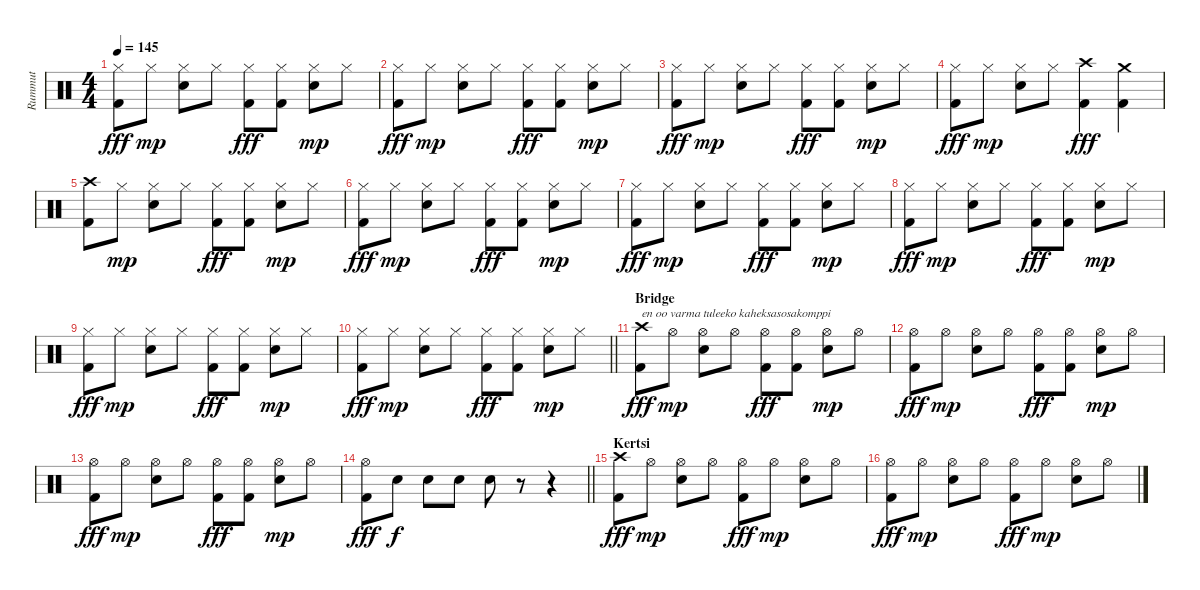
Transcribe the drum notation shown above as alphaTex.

\track ("Rummut" "Rummut") {instrument percussion}
\staff {score}
\articulation defaults
\ts (4 4)
\tempo 145
\clef neutral
\ks c
("Hi-Hat (closed)" "Kick (hit) 2").8{dy fff} "Hi-Hat (closed)".8{dy mp} ("Hi-Hat (closed)" "Snare (hit) 2").8 "Hi-Hat (closed)".8 ("Hi-Hat (closed)" "Kick (hit) 2").8{dy fff} ("Hi-Hat (closed)" "Kick (hit) 2").8 ("Hi-Hat (closed)" "Snare (hit) 2").8{dy mp} "Hi-Hat (closed)".8 |
("Hi-Hat (closed)" "Kick (hit) 2").8{dy fff} "Hi-Hat (closed)".8{dy mp} ("Hi-Hat (closed)" "Snare (hit) 2").8 "Hi-Hat (closed)".8 ("Hi-Hat (closed)" "Kick (hit) 2").8{dy fff} ("Hi-Hat (closed)" "Kick (hit) 2").8 ("Hi-Hat (closed)" "Snare (hit) 2").8{dy mp} "Hi-Hat (closed)".8 |
("Hi-Hat (closed)" "Kick (hit) 2").8{dy fff} "Hi-Hat (closed)".8{dy mp} ("Hi-Hat (closed)" "Snare (hit) 2").8 "Hi-Hat (closed)".8 ("Hi-Hat (closed)" "Kick (hit) 2").8{dy fff} ("Hi-Hat (closed)" "Kick (hit) 2").8 ("Hi-Hat (closed)" "Snare (hit) 2").8{dy mp} "Hi-Hat (closed)".8 |
("Hi-Hat (closed)" "Kick (hit) 2").8{dy fff} "Hi-Hat (closed)".8{dy mp} ("Hi-Hat (closed)" "Snare (hit) 2").8 "Hi-Hat (closed)".8 ("Crash high (hit)" "Kick (hit) 2").4{dy fff} ("Crash medium (hit)" "Kick (hit) 2").4 |
("Crash high (hit)" "Kick (hit) 2").8 "Hi-Hat (closed)".8{dy mp} ("Hi-Hat (closed)" "Snare (hit) 2").8 "Hi-Hat (closed)".8 ("Hi-Hat (closed)" "Kick (hit) 2").8{dy fff} ("Hi-Hat (closed)" "Kick (hit) 2").8 ("Hi-Hat (closed)" "Snare (hit) 2").8{dy mp} "Hi-Hat (closed)".8 |
("Hi-Hat (closed)" "Kick (hit) 2").8{dy fff} "Hi-Hat (closed)".8{dy mp} ("Hi-Hat (closed)" "Snare (hit) 2").8 "Hi-Hat (closed)".8 ("Hi-Hat (closed)" "Kick (hit) 2").8{dy fff} ("Hi-Hat (closed)" "Kick (hit) 2").8 ("Hi-Hat (closed)" "Snare (hit) 2").8{dy mp} "Hi-Hat (closed)".8 |
("Hi-Hat (closed)" "Kick (hit) 2").8{dy fff} "Hi-Hat (closed)".8{dy mp} ("Hi-Hat (closed)" "Snare (hit) 2").8 "Hi-Hat (closed)".8 ("Hi-Hat (closed)" "Kick (hit) 2").8{dy fff} ("Hi-Hat (closed)" "Kick (hit) 2").8 ("Hi-Hat (closed)" "Snare (hit) 2").8{dy mp} "Hi-Hat (closed)".8 |
("Hi-Hat (closed)" "Kick (hit) 2").8{dy fff} "Hi-Hat (closed)".8{dy mp} ("Hi-Hat (closed)" "Snare (hit) 2").8 "Hi-Hat (closed)".8 ("Hi-Hat (closed)" "Kick (hit) 2").8{dy fff} ("Hi-Hat (closed)" "Kick (hit) 2").8 ("Hi-Hat (closed)" "Snare (hit) 2").8{dy mp} "Hi-Hat (closed)".8 |
("Hi-Hat (closed)" "Kick (hit) 2").8{dy fff} "Hi-Hat (closed)".8{dy mp} ("Hi-Hat (closed)" "Snare (hit) 2").8 "Hi-Hat (closed)".8 ("Hi-Hat (closed)" "Kick (hit) 2").8{dy fff} ("Hi-Hat (closed)" "Kick (hit) 2").8 ("Hi-Hat (closed)" "Snare (hit) 2").8{dy mp} "Hi-Hat (closed)".8 |
\barLineRight lightlight
("Hi-Hat (closed)" "Kick (hit) 2").8{dy fff} "Hi-Hat (closed)".8{dy mp} ("Hi-Hat (closed)" "Snare (hit) 2").8 "Hi-Hat (closed)".8 ("Hi-Hat (closed)" "Kick (hit) 2").8{dy fff} ("Hi-Hat (closed)" "Kick (hit) 2").8 ("Hi-Hat (closed)" "Snare (hit) 2").8{dy mp} "Hi-Hat (closed)".8 |
\section ("" "Bridge")
("Crash high (hit)" "Kick (hit) 2").8{txt "en oo varma tuleeko kaheksasosakomppi" dy fff} "Hi-Hat (open)".8{dy mp} ("Hi-Hat (open)" "Snare (hit) 2").8 "Hi-Hat (open)".8 ("Hi-Hat (open)" "Kick (hit) 2").8{dy fff} ("Hi-Hat (open)" "Kick (hit) 2").8 ("Hi-Hat (open)" "Snare (hit) 2").8{dy mp} "Hi-Hat (open)".8 |
("Hi-Hat (open)" "Kick (hit) 2").8{dy fff} "Hi-Hat (open)".8{dy mp} ("Hi-Hat (open)" "Snare (hit) 2").8 "Hi-Hat (open)".8 ("Hi-Hat (open)" "Kick (hit) 2").8{dy fff} ("Hi-Hat (open)" "Kick (hit) 2").8 ("Hi-Hat (open)" "Snare (hit) 2").8{dy mp} "Hi-Hat (open)".8 |
("Hi-Hat (open)" "Kick (hit) 2").8{dy fff} "Hi-Hat (open)".8{dy mp} ("Hi-Hat (open)" "Snare (hit) 2").8 "Hi-Hat (open)".8 ("Hi-Hat (open)" "Kick (hit) 2").8{dy fff} ("Hi-Hat (open)" "Kick (hit) 2").8 ("Hi-Hat (open)" "Snare (hit) 2").8{dy mp} "Hi-Hat (open)".8 |
\barLineRight lightlight
("Hi-Hat (open)" "Kick (hit) 2").8{dy fff} "Snare (hit) 2".8{dy f} "Snare (hit) 2".8 "Snare (hit) 2".8 "Snare (hit) 2".8 r.8 r.4 |
\section ("" "Kertsi")
("Crash high (hit)" "Kick (hit) 2").8{dy fff} "Hi-Hat (open)".8{dy mp} ("Hi-Hat (open)" "Snare (hit) 2").8 "Hi-Hat (open)".8 ("Hi-Hat (open)" "Kick (hit) 2").8{dy fff} "Hi-Hat (open)".8{dy mp} ("Hi-Hat (open)" "Snare (hit) 2").8 "Hi-Hat (open)".8 |
("Hi-Hat (open)" "Kick (hit) 2").8{dy fff} "Hi-Hat (open)".8{dy mp} ("Hi-Hat (open)" "Snare (hit) 2").8 "Hi-Hat (open)".8 ("Hi-Hat (open)" "Kick (hit) 2").8{dy fff} "Hi-Hat (open)".8{dy mp} ("Hi-Hat (open)" "Snare (hit) 2").8 "Hi-Hat (open)".8
